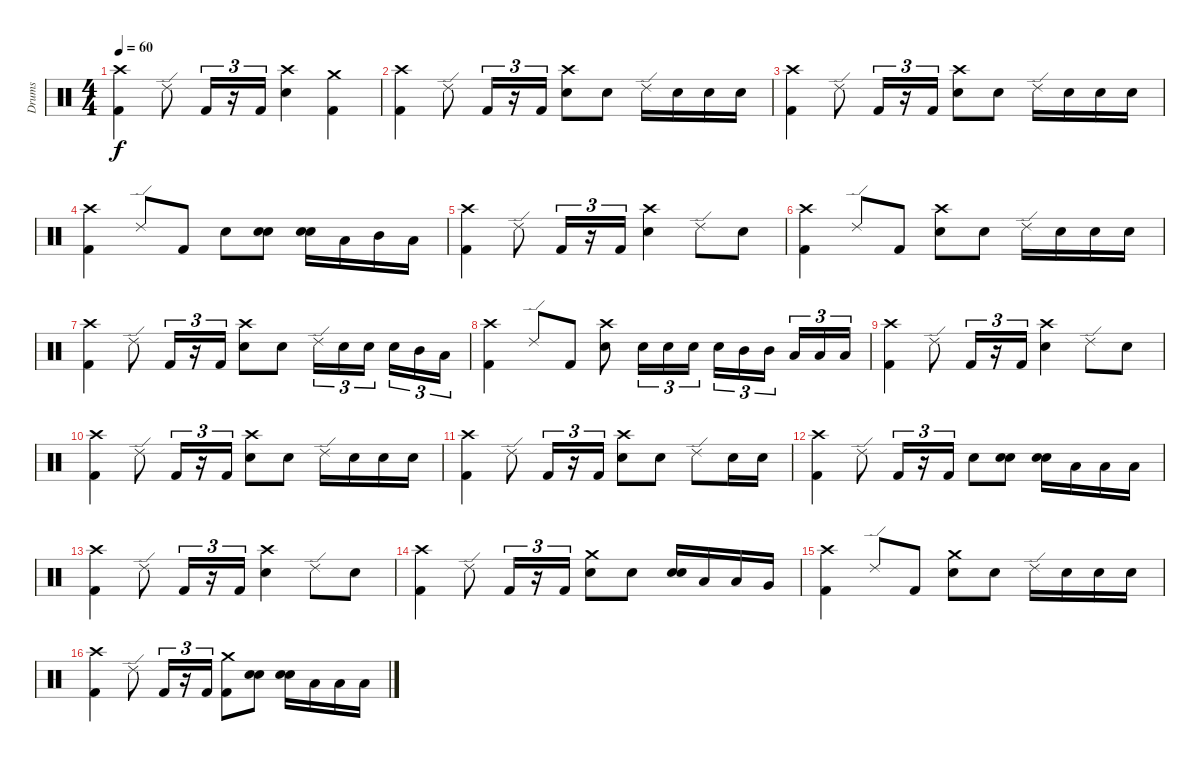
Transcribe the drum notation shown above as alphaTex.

\track ("Drums" "Drums") {instrument percussion}
\staff {score}
\articulation defaults
\ts (4 4)
\tempo 60
\clef neutral
\ks c
("Crash high (hit)" "Kick (hit) 2").4{dy f} "Ride (edge) 2".8 "Kick (hit) 2".16{tu (3 2)} r.16{tu (3 2)} "Kick (hit) 2".16{tu (3 2)} ("Crash high (hit)" "Electric Snare (hit)").4 ("Crash medium (hit)" "Kick (hit) 2").4 |
("Crash high (hit)" "Kick (hit) 2").4 "Ride (edge) 2".8 "Kick (hit) 2".16{tu (3 2)} r.16{tu (3 2)} "Kick (hit) 2".16{tu (3 2)} ("Crash high (hit)" "Electric Snare (hit)").8 "Electric Snare (hit)".8 "Ride (edge) 2".16 "Electric Snare (hit)".16 "Electric Snare (hit)".16 "Electric Snare (hit)".16 |
("Crash high (hit)" "Kick (hit) 2").4 "Ride (edge) 2".8 "Kick (hit) 2".16{tu (3 2)} r.16{tu (3 2)} "Kick (hit) 2".16{tu (3 2)} ("Crash high (hit)" "Electric Snare (hit)").8 "Electric Snare (hit)".8 "Ride (edge) 2".16 "Electric Snare (hit)".16 "Electric Snare (hit)".16 "Electric Snare (hit)".16 |
("Crash high (hit)" "Kick (hit) 2").4 "Ride (edge) 2".8 "Kick (hit) 2".8 "Electric Snare (hit)".8 ("Electric Snare (hit)" "Electric Snare (hit)").8{bu 60} ("Electric Snare (hit)" "Electric Snare (hit)").16{bu 60} "Low Tom (hit)".16 "Mid Tom (hit)".16 "Low Tom (hit)".16 |
("Crash high (hit)" "Kick (hit) 2").4 "Ride (edge) 2".8 "Kick (hit) 2".16{tu (3 2)} r.16{tu (3 2)} "Kick (hit) 2".16{tu (3 2)} ("Crash high (hit)" "Electric Snare (hit)").4 "Ride (edge) 2".8 "Electric Snare (hit)".8 |
("Crash high (hit)" "Kick (hit) 2").4 "Ride (edge) 2".8 "Kick (hit) 2".8 ("Crash high (hit)" "Electric Snare (hit)").8 "Electric Snare (hit)".8 "Ride (edge) 2".16 "Electric Snare (hit)".16 "Electric Snare (hit)".16 "Electric Snare (hit)".16 |
("Crash high (hit)" "Kick (hit) 2").4 "Ride (edge) 2".8 "Kick (hit) 2".16{tu (3 2)} r.16{tu (3 2)} "Kick (hit) 2".16{tu (3 2)} ("Crash high (hit)" "Electric Snare (hit)").8 "Electric Snare (hit)".8 "Ride (edge) 2".16{tu (3 2)} "Electric Snare (hit)".16{tu (3 2)} "Electric Snare (hit)".16{tu (3 2)} "Electric Snare (hit)".16{tu (3 2)} "Mid Tom (hit)".16{tu (3 2)} "Low Tom (hit)".16{tu (3 2)} |
("Crash high (hit)" "Kick (hit) 2").4 "Ride (edge) 2".8 "Kick (hit) 2".8 ("Crash high (hit)" "Electric Snare (hit)").8 "Electric Snare (hit)".16{tu (3 2)} "Electric Snare (hit)".16{tu (3 2)} "Electric Snare (hit)".16{tu (3 2)} "Electric Snare (hit)".16{tu (3 2)} "Mid Tom (hit)".16{tu (3 2)} "Mid Tom (hit)".16{tu (3 2)} "Low Tom (hit)".16{tu (3 2)} "Low Tom (hit)".16{tu (3 2)} "Low Tom (hit)".16{tu (3 2)} |
("Crash high (hit)" "Kick (hit) 2").4 "Ride (edge) 2".8 "Kick (hit) 2".16{tu (3 2)} r.16{tu (3 2)} "Kick (hit) 2".16{tu (3 2)} ("Crash high (hit)" "Electric Snare (hit)").4 "Ride (edge) 2".8 "Electric Snare (hit)".8 |
("Crash high (hit)" "Kick (hit) 2").4 "Ride (edge) 2".8 "Kick (hit) 2".16{tu (3 2)} r.16{tu (3 2)} "Kick (hit) 2".16{tu (3 2)} ("Crash high (hit)" "Electric Snare (hit)").8 "Electric Snare (hit)".8 "Ride (edge) 2".16 "Electric Snare (hit)".16 "Electric Snare (hit)".16 "Electric Snare (hit)".16 |
("Crash high (hit)" "Kick (hit) 2").4 "Ride (edge) 2".8 "Kick (hit) 2".16{tu (3 2)} r.16{tu (3 2)} "Kick (hit) 2".16{tu (3 2)} ("Crash high (hit)" "Electric Snare (hit)").8 "Electric Snare (hit)".8 "Ride (edge) 2".8 "Electric Snare (hit)".16 "Electric Snare (hit)".16 |
("Crash high (hit)" "Kick (hit) 2").4 "Ride (edge) 2".8 "Kick (hit) 2".16{tu (3 2)} r.16{tu (3 2)} "Kick (hit) 2".16{tu (3 2)} "Electric Snare (hit)".8 ("Electric Snare (hit)" "Electric Snare (hit)").8{bu 60} ("Electric Snare (hit)" "Electric Snare (hit)").16{bu 60} "Low Tom (hit)".16 "Low Tom (hit)".16 "Low Tom (hit)".16 |
("Crash high (hit)" "Kick (hit) 2").4 "Ride (edge) 2".8 "Kick (hit) 2".16{tu (3 2)} r.16{tu (3 2)} "Kick (hit) 2".16{tu (3 2)} ("Crash high (hit)" "Electric Snare (hit)").4 "Ride (edge) 2".8 "Electric Snare (hit)".8 |
("Crash high (hit)" "Kick (hit) 2").4 "Ride (edge) 2".8 "Kick (hit) 2".16{tu (3 2)} r.16{tu (3 2)} "Kick (hit) 2".16{tu (3 2)} ("Crash medium (hit)" "Electric Snare (hit)").8 "Electric Snare (hit)".8 ("Electric Snare (hit)" "Electric Snare (hit)").16{bu 60} "Low Tom (hit)".16 "Low Tom (hit)".16 "Very Low Tom (hit)".16 |
("Crash high (hit)" "Kick (hit) 2").4 "Ride (edge) 2".8 "Kick (hit) 2".8 ("Crash medium (hit)" "Electric Snare (hit)").8 "Electric Snare (hit)".8 "Ride (edge) 2".16 "Electric Snare (hit)".16 "Electric Snare (hit)".16 "Electric Snare (hit)".16 |
("Crash high (hit)" "Kick (hit) 2").4 "Ride (edge) 2".8 "Kick (hit) 2".16{tu (3 2)} r.16{tu (3 2)} "Kick (hit) 2".16{tu (3 2)} ("Crash medium (hit)" "Kick (hit) 2").8 ("Electric Snare (hit)" "Electric Snare (hit)").8{bu 60} ("Electric Snare (hit)" "Electric Snare (hit)").16{bu 60} "Low Tom (hit)".16 "Low Tom (hit)".16 "Low Tom (hit)".16
